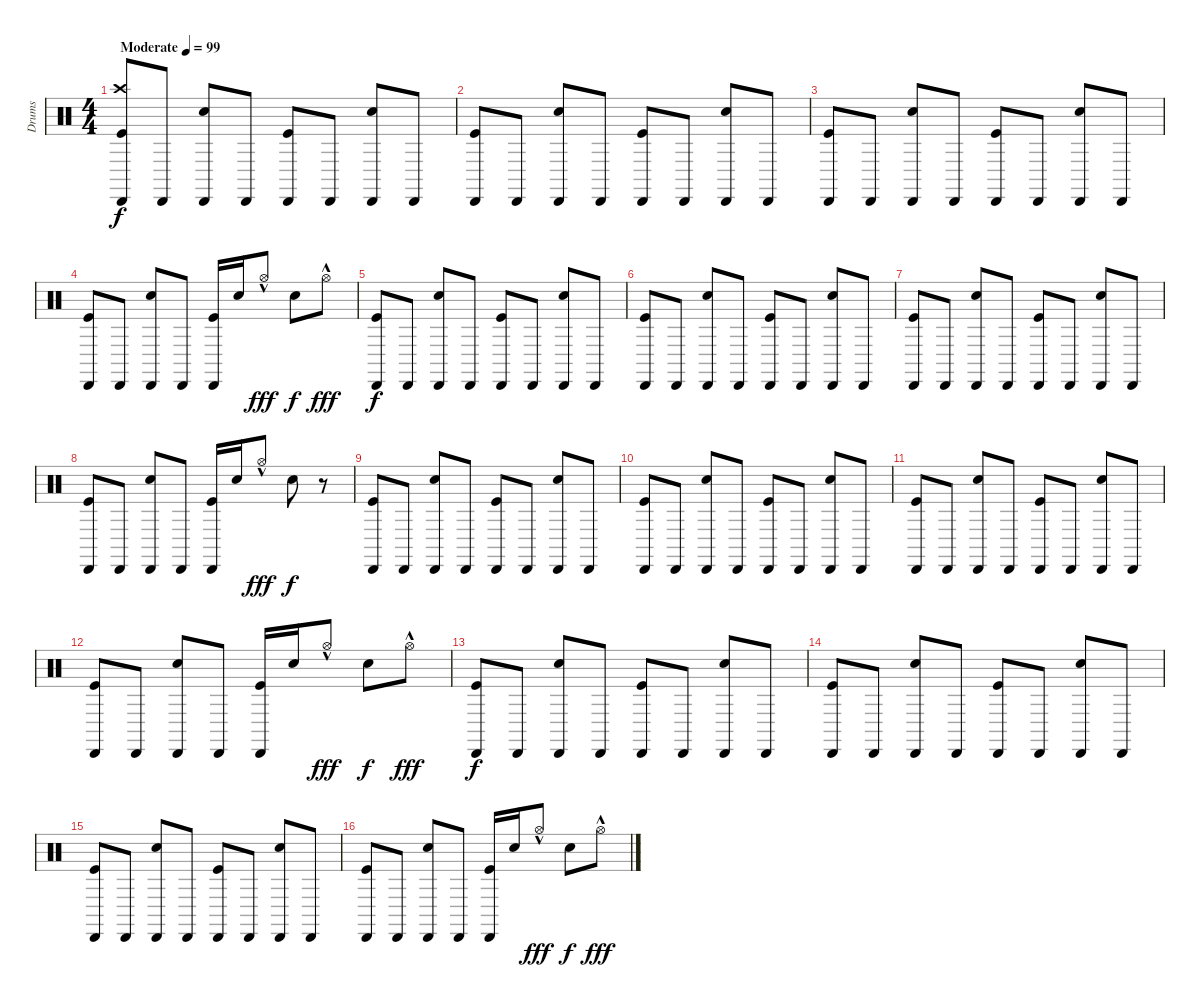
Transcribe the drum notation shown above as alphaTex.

\track ("Drums" "Drums") {instrument percussion}
\staff {score}
\articulation defaults
\ts (4 4)
\tempo (99 "Moderate")
\clef neutral
\ks c
("Crash high (hit)" "Cabasa (hit)" "Kick (hit)").8{dy f} "Cabasa (hit)".8 ("Cabasa (hit)" "Electric Snare (hit)").8 "Cabasa (hit)".8 ("Cabasa (hit)" "Kick (hit)").8 "Cabasa (hit)".8 ("Cabasa (hit)" "Electric Snare (hit)").8 "Cabasa (hit)".8 |
("Cabasa (hit)" "Kick (hit)").8 "Cabasa (hit)".8 ("Cabasa (hit)" "Electric Snare (hit)").8 "Cabasa (hit)".8 ("Cabasa (hit)" "Kick (hit)").8 "Cabasa (hit)".8 ("Cabasa (hit)" "Electric Snare (hit)").8 "Cabasa (hit)".8 |
("Cabasa (hit)" "Kick (hit)").8 "Cabasa (hit)".8 ("Cabasa (hit)" "Electric Snare (hit)").8 "Cabasa (hit)".8 ("Cabasa (hit)" "Kick (hit)").8 "Cabasa (hit)".8 ("Cabasa (hit)" "Electric Snare (hit)").8 "Cabasa (hit)".8 |
("Cabasa (hit)" "Kick (hit)").8 "Cabasa (hit)".8 ("Cabasa (hit)" "Electric Snare (hit)").8 "Cabasa (hit)".8 ("Cabasa (hit)" "Kick (hit)").16 "Electric Snare (hit)".16 "Hi-Hat (open)"{hac}.8{dy fff} "Electric Snare (hit)".8{dy f} "Hi-Hat (open)"{hac}.8{dy fff} |
("Cabasa (hit)" "Kick (hit)").8{dy f} "Cabasa (hit)".8 ("Cabasa (hit)" "Electric Snare (hit)").8 "Cabasa (hit)".8 ("Cabasa (hit)" "Kick (hit)").8 "Cabasa (hit)".8 ("Cabasa (hit)" "Electric Snare (hit)").8 "Cabasa (hit)".8 |
("Cabasa (hit)" "Kick (hit)").8 "Cabasa (hit)".8 ("Cabasa (hit)" "Electric Snare (hit)").8 "Cabasa (hit)".8 ("Cabasa (hit)" "Kick (hit)").8 "Cabasa (hit)".8 ("Cabasa (hit)" "Electric Snare (hit)").8 "Cabasa (hit)".8 |
("Cabasa (hit)" "Kick (hit)").8 "Cabasa (hit)".8 ("Cabasa (hit)" "Electric Snare (hit)").8 "Cabasa (hit)".8 ("Cabasa (hit)" "Kick (hit)").8 "Cabasa (hit)".8 ("Cabasa (hit)" "Electric Snare (hit)").8 "Cabasa (hit)".8 |
("Cabasa (hit)" "Kick (hit)").8 "Cabasa (hit)".8 ("Cabasa (hit)" "Electric Snare (hit)").8 "Cabasa (hit)".8 ("Cabasa (hit)" "Kick (hit)").16 "Electric Snare (hit)".16 "Hi-Hat (open)"{hac}.8{dy fff} "Electric Snare (hit)".8{dy f} r.8 |
("Cabasa (hit)" "Kick (hit)").8 "Cabasa (hit)".8 ("Cabasa (hit)" "Electric Snare (hit)").8 "Cabasa (hit)".8 ("Cabasa (hit)" "Kick (hit)").8 "Cabasa (hit)".8 ("Cabasa (hit)" "Electric Snare (hit)").8 "Cabasa (hit)".8 |
("Cabasa (hit)" "Kick (hit)").8 "Cabasa (hit)".8 ("Cabasa (hit)" "Electric Snare (hit)").8 "Cabasa (hit)".8 ("Cabasa (hit)" "Kick (hit)").8 "Cabasa (hit)".8 ("Cabasa (hit)" "Electric Snare (hit)").8 "Cabasa (hit)".8 |
("Cabasa (hit)" "Kick (hit)").8 "Cabasa (hit)".8 ("Cabasa (hit)" "Electric Snare (hit)").8 "Cabasa (hit)".8 ("Cabasa (hit)" "Kick (hit)").8 "Cabasa (hit)".8 ("Cabasa (hit)" "Electric Snare (hit)").8 "Cabasa (hit)".8 |
("Cabasa (hit)" "Kick (hit)").8 "Cabasa (hit)".8 ("Cabasa (hit)" "Electric Snare (hit)").8 "Cabasa (hit)".8 ("Cabasa (hit)" "Kick (hit)").16 "Electric Snare (hit)".16 "Hi-Hat (open)"{hac}.8{dy fff} "Electric Snare (hit)".8{dy f} "Hi-Hat (open)"{hac}.8{dy fff} |
("Cabasa (hit)" "Kick (hit)").8{dy f} "Cabasa (hit)".8 ("Cabasa (hit)" "Electric Snare (hit)").8 "Cabasa (hit)".8 ("Cabasa (hit)" "Kick (hit)").8 "Cabasa (hit)".8 ("Cabasa (hit)" "Electric Snare (hit)").8 "Cabasa (hit)".8 |
("Cabasa (hit)" "Kick (hit)").8 "Cabasa (hit)".8 ("Cabasa (hit)" "Electric Snare (hit)").8 "Cabasa (hit)".8 ("Cabasa (hit)" "Kick (hit)").8 "Cabasa (hit)".8 ("Cabasa (hit)" "Electric Snare (hit)").8 "Cabasa (hit)".8 |
("Cabasa (hit)" "Kick (hit)").8 "Cabasa (hit)".8 ("Cabasa (hit)" "Electric Snare (hit)").8 "Cabasa (hit)".8 ("Cabasa (hit)" "Kick (hit)").8 "Cabasa (hit)".8 ("Cabasa (hit)" "Electric Snare (hit)").8 "Cabasa (hit)".8 |
("Cabasa (hit)" "Kick (hit)").8 "Cabasa (hit)".8 ("Cabasa (hit)" "Electric Snare (hit)").8 "Cabasa (hit)".8 ("Cabasa (hit)" "Kick (hit)").16 "Electric Snare (hit)".16 "Hi-Hat (open)"{hac}.8{dy fff} "Electric Snare (hit)".8{dy f} "Hi-Hat (open)"{hac}.8{dy fff}
